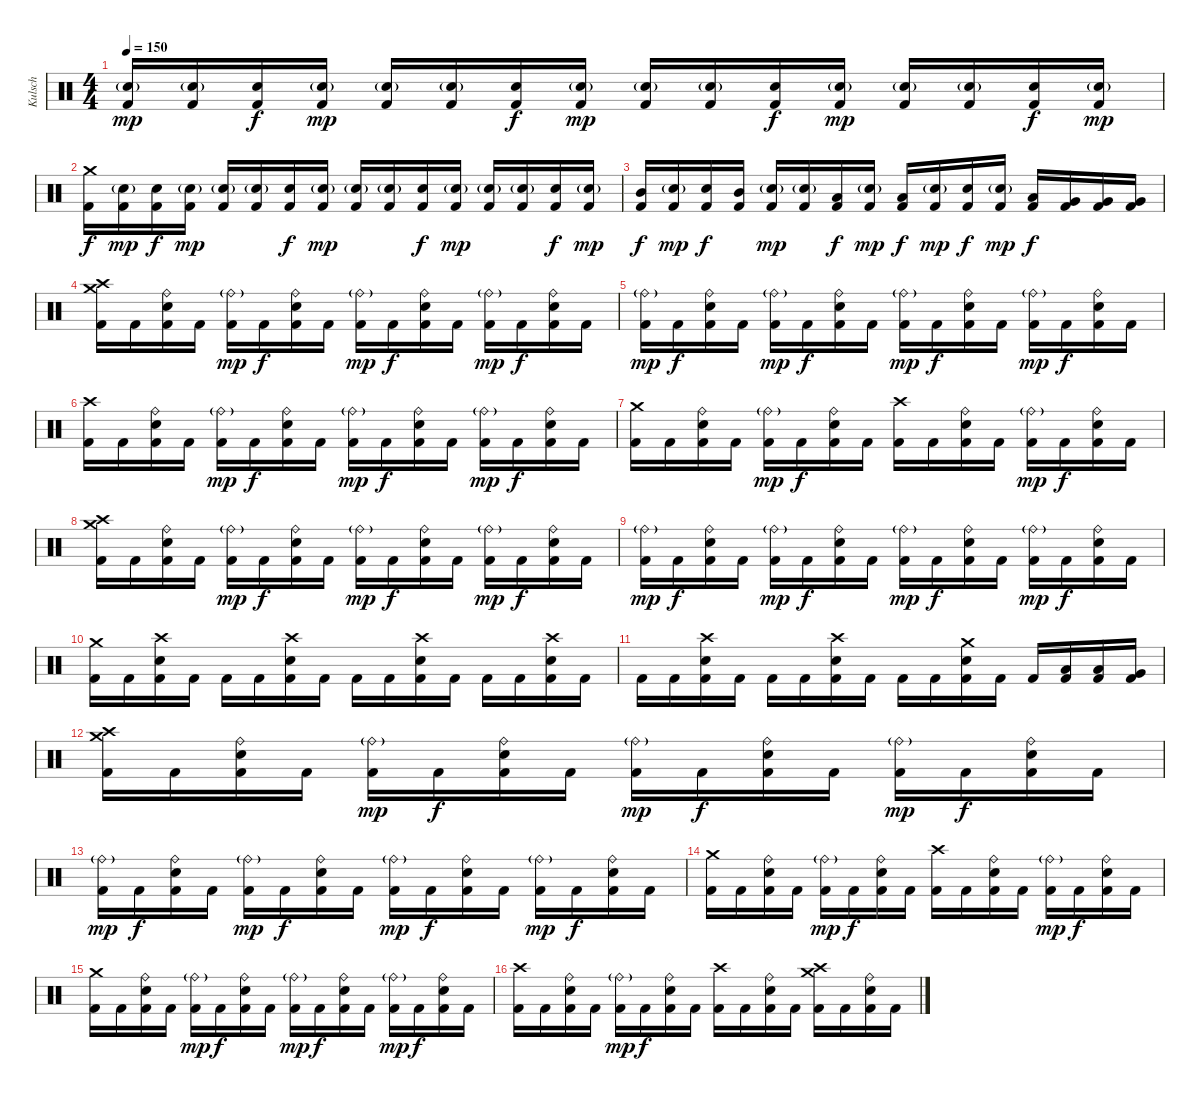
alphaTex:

\track ("Kulsch" "Kulsch") {instrument percussion}
\staff {score}
\articulation defaults
\ts (4 4)
\tempo 150
\clef neutral
\ks c
("Snare (hit) 2"{g} "Kick (hit) 2").16{dy mp} ("Snare (hit) 2"{g} "Kick (hit) 2").16 ("Snare (hit) 2" "Kick (hit) 2").16{dy f} ("Snare (hit) 2"{g} "Kick (hit) 2").16{dy mp} ("Snare (hit) 2"{g} "Kick (hit) 2").16 ("Snare (hit) 2"{g} "Kick (hit) 2").16 ("Snare (hit) 2" "Kick (hit) 2").16{dy f} ("Snare (hit) 2"{g} "Kick (hit) 2").16{dy mp} ("Snare (hit) 2"{g} "Kick (hit) 2").16 ("Snare (hit) 2"{g} "Kick (hit) 2").16 ("Snare (hit) 2" "Kick (hit) 2").16{dy f} ("Snare (hit) 2"{g} "Kick (hit) 2").16{dy mp} ("Snare (hit) 2"{g} "Kick (hit) 2").16 ("Snare (hit) 2"{g} "Kick (hit) 2").16 ("Snare (hit) 2" "Kick (hit) 2").16{dy f} ("Snare (hit) 2"{g} "Kick (hit) 2").16{dy mp} |
("Crash medium (hit)" "Kick (hit) 2").16{dy f} ("Snare (hit) 2"{g} "Kick (hit) 2").16{dy mp} ("Snare (hit) 2" "Kick (hit) 2").16{dy f} ("Snare (hit) 2"{g} "Kick (hit) 2").16{dy mp} ("Snare (hit) 2"{g} "Kick (hit) 2").16 ("Snare (hit) 2"{g} "Kick (hit) 2").16 ("Snare (hit) 2" "Kick (hit) 2").16{dy f} ("Snare (hit) 2"{g} "Kick (hit) 2").16{dy mp} ("Snare (hit) 2"{g} "Kick (hit) 2").16 ("Snare (hit) 2"{g} "Kick (hit) 2").16 ("Snare (hit) 2" "Kick (hit) 2").16{dy f} ("Snare (hit) 2"{g} "Kick (hit) 2").16{dy mp} ("Snare (hit) 2"{g} "Kick (hit) 2").16 ("Snare (hit) 2"{g} "Kick (hit) 2").16 ("Snare (hit) 2" "Kick (hit) 2").16{dy f} ("Snare (hit) 2"{g} "Kick (hit) 2").16{dy mp} |
("Mid Tom (hit)" "Kick (hit) 2").16{dy f} ("Snare (hit) 2"{g} "Kick (hit) 2").16{dy mp} ("Snare (hit) 2" "Kick (hit) 2").16{dy f} ("Mid Tom (hit)" "Kick (hit) 2").16 ("Snare (hit) 2"{g} "Kick (hit) 2").16{dy mp} ("Snare (hit) 2"{g} "Kick (hit) 2").16 ("Low Tom (hit)" "Kick (hit) 2").16{dy f} ("Snare (hit) 2"{g} "Kick (hit) 2").16{dy mp} ("Low Tom (hit)" "Kick (hit) 2").16{dy f} ("Snare (hit) 2"{g} "Kick (hit) 2").16{dy mp} ("Snare (hit) 2" "Kick (hit) 2").16{dy f} ("Snare (hit) 2"{g} "Kick (hit) 2").16{dy mp} ("Low Tom (hit)" "Kick (hit) 2").16{dy f} ("Very Low Tom (hit)" "Kick (hit) 2").16 ("Very Low Tom (hit)" "Kick (hit) 2").16 ("Very Low Tom (hit)" "Kick (hit) 2").16 |
("Crash medium (hit)" "Crash high (hit)" "Kick (hit) 2").16 "Kick (hit) 2".16 ("Ride (bell)" "Snare (hit) 2" "Kick (hit) 2").16 "Kick (hit) 2".16 ("Ride (bell)"{g} "Kick (hit) 2").16{dy mp} "Kick (hit) 2".16{dy f} ("Ride (bell)" "Snare (hit) 2" "Kick (hit) 2").16 "Kick (hit) 2".16 ("Ride (bell)"{g} "Kick (hit) 2").16{dy mp} "Kick (hit) 2".16{dy f} ("Ride (bell)" "Snare (hit) 2" "Kick (hit) 2").16 "Kick (hit) 2".16 ("Ride (bell)"{g} "Kick (hit) 2").16{dy mp} "Kick (hit) 2".16{dy f} ("Ride (bell)" "Snare (hit) 2" "Kick (hit) 2").16 "Kick (hit) 2".16 |
("Ride (bell)"{g} "Kick (hit) 2").16{dy mp} "Kick (hit) 2".16{dy f} ("Ride (bell)" "Snare (hit) 2" "Kick (hit) 2").16 "Kick (hit) 2".16 ("Ride (bell)"{g} "Kick (hit) 2").16{dy mp} "Kick (hit) 2".16{dy f} ("Ride (bell)" "Snare (hit) 2" "Kick (hit) 2").16 "Kick (hit) 2".16 ("Ride (bell)"{g} "Kick (hit) 2").16{dy mp} "Kick (hit) 2".16{dy f} ("Ride (bell)" "Snare (hit) 2" "Kick (hit) 2").16 "Kick (hit) 2".16 ("Ride (bell)"{g} "Kick (hit) 2").16{dy mp} "Kick (hit) 2".16{dy f} ("Ride (bell)" "Snare (hit) 2" "Kick (hit) 2").16 "Kick (hit) 2".16 |
("Crash high (hit)" "Kick (hit) 2").16 "Kick (hit) 2".16 ("Ride (bell)" "Snare (hit) 2" "Kick (hit) 2").16 "Kick (hit) 2".16 ("Ride (bell)"{g} "Kick (hit) 2").16{dy mp} "Kick (hit) 2".16{dy f} ("Ride (bell)" "Snare (hit) 2" "Kick (hit) 2").16 "Kick (hit) 2".16 ("Ride (bell)"{g} "Kick (hit) 2").16{dy mp} "Kick (hit) 2".16{dy f} ("Ride (bell)" "Snare (hit) 2" "Kick (hit) 2").16 "Kick (hit) 2".16 ("Ride (bell)"{g} "Kick (hit) 2").16{dy mp} "Kick (hit) 2".16{dy f} ("Ride (bell)" "Snare (hit) 2" "Kick (hit) 2").16 "Kick (hit) 2".16 |
("Crash medium (hit)" "Kick (hit) 2").16 "Kick (hit) 2".16 ("Ride (bell)" "Snare (hit) 2" "Kick (hit) 2").16 "Kick (hit) 2".16 ("Ride (bell)"{g} "Kick (hit) 2").16{dy mp} "Kick (hit) 2".16{dy f} ("Ride (bell)" "Snare (hit) 2" "Kick (hit) 2").16 "Kick (hit) 2".16 ("Crash high (hit)" "Kick (hit) 2").16 "Kick (hit) 2".16 ("Ride (bell)" "Snare (hit) 2" "Kick (hit) 2").16 "Kick (hit) 2".16 ("Ride (bell)"{g} "Kick (hit) 2").16{dy mp} "Kick (hit) 2".16{dy f} ("Ride (bell)" "Snare (hit) 2" "Kick (hit) 2").16 "Kick (hit) 2".16 |
("Crash medium (hit)" "Crash high (hit)" "Kick (hit) 2").16 "Kick (hit) 2".16 ("Ride (bell)" "Snare (hit) 2" "Kick (hit) 2").16 "Kick (hit) 2".16 ("Ride (bell)"{g} "Kick (hit) 2").16{dy mp} "Kick (hit) 2".16{dy f} ("Ride (bell)" "Snare (hit) 2" "Kick (hit) 2").16 "Kick (hit) 2".16 ("Ride (bell)"{g} "Kick (hit) 2").16{dy mp} "Kick (hit) 2".16{dy f} ("Ride (bell)" "Snare (hit) 2" "Kick (hit) 2").16 "Kick (hit) 2".16 ("Ride (bell)"{g} "Kick (hit) 2").16{dy mp} "Kick (hit) 2".16{dy f} ("Ride (bell)" "Snare (hit) 2" "Kick (hit) 2").16 "Kick (hit) 2".16 |
("Ride (bell)"{g} "Kick (hit) 2").16{dy mp} "Kick (hit) 2".16{dy f} ("Ride (bell)" "Snare (hit) 2" "Kick (hit) 2").16 "Kick (hit) 2".16 ("Ride (bell)"{g} "Kick (hit) 2").16{dy mp} "Kick (hit) 2".16{dy f} ("Ride (bell)" "Snare (hit) 2" "Kick (hit) 2").16 "Kick (hit) 2".16 ("Ride (bell)"{g} "Kick (hit) 2").16{dy mp} "Kick (hit) 2".16{dy f} ("Ride (bell)" "Snare (hit) 2" "Kick (hit) 2").16 "Kick (hit) 2".16 ("Ride (bell)"{g} "Kick (hit) 2").16{dy mp} "Kick (hit) 2".16{dy f} ("Ride (bell)" "Snare (hit) 2" "Kick (hit) 2").16 "Kick (hit) 2".16 |
("Crash medium (hit)" "Kick (hit) 2").16 "Kick (hit) 2".16 ("Crash high (hit)" "Snare (hit) 2" "Kick (hit) 2").16 "Kick (hit) 2".16 "Kick (hit) 2".16 "Kick (hit) 2".16 ("Crash high (hit)" "Snare (hit) 2" "Kick (hit) 2").16 "Kick (hit) 2".16 "Kick (hit) 2".16 "Kick (hit) 2".16 ("Crash high (hit)" "Snare (hit) 2" "Kick (hit) 2").16 "Kick (hit) 2".16 "Kick (hit) 2".16 "Kick (hit) 2".16 ("Crash high (hit)" "Snare (hit) 2" "Kick (hit) 2").16 "Kick (hit) 2".16 |
"Kick (hit) 2".16 "Kick (hit) 2".16 ("Crash high (hit)" "Snare (hit) 2" "Kick (hit) 2").16 "Kick (hit) 2".16 "Kick (hit) 2".16 "Kick (hit) 2".16 ("Crash high (hit)" "Snare (hit) 2" "Kick (hit) 2").16 "Kick (hit) 2".16 "Kick (hit) 2".16 "Kick (hit) 2".16 ("Crash medium (hit)" "Snare (hit) 2" "Kick (hit) 2").16 "Kick (hit) 2".16 "Kick (hit) 2".16 ("Low Tom (hit)" "Kick (hit) 2").16 ("Low Tom (hit)" "Kick (hit) 2").16 ("Very Low Tom (hit)" "Kick (hit) 2").16 |
("Crash medium (hit)" "Crash high (hit)" "Kick (hit) 2").16 "Kick (hit) 2".16 ("Ride (bell)" "Snare (hit) 2" "Kick (hit) 2").16 "Kick (hit) 2".16 ("Ride (bell)"{g} "Kick (hit) 2").16{dy mp} "Kick (hit) 2".16{dy f} ("Ride (bell)" "Snare (hit) 2" "Kick (hit) 2").16 "Kick (hit) 2".16 ("Ride (bell)"{g} "Kick (hit) 2").16{dy mp} "Kick (hit) 2".16{dy f} ("Ride (bell)" "Snare (hit) 2" "Kick (hit) 2").16 "Kick (hit) 2".16 ("Ride (bell)"{g} "Kick (hit) 2").16{dy mp} "Kick (hit) 2".16{dy f} ("Ride (bell)" "Snare (hit) 2" "Kick (hit) 2").16 "Kick (hit) 2".16 |
("Ride (bell)"{g} "Kick (hit) 2").16{dy mp} "Kick (hit) 2".16{dy f} ("Ride (bell)" "Snare (hit) 2" "Kick (hit) 2").16 "Kick (hit) 2".16 ("Ride (bell)"{g} "Kick (hit) 2").16{dy mp} "Kick (hit) 2".16{dy f} ("Ride (bell)" "Snare (hit) 2" "Kick (hit) 2").16 "Kick (hit) 2".16 ("Ride (bell)"{g} "Kick (hit) 2").16{dy mp} "Kick (hit) 2".16{dy f} ("Ride (bell)" "Snare (hit) 2" "Kick (hit) 2").16 "Kick (hit) 2".16 ("Ride (bell)"{g} "Kick (hit) 2").16{dy mp} "Kick (hit) 2".16{dy f} ("Ride (bell)" "Snare (hit) 2" "Kick (hit) 2").16 "Kick (hit) 2".16 |
("Crash medium (hit)" "Kick (hit) 2").16 "Kick (hit) 2".16 ("Ride (bell)" "Snare (hit) 2" "Kick (hit) 2").16 "Kick (hit) 2".16 ("Ride (bell)"{g} "Kick (hit) 2").16{dy mp} "Kick (hit) 2".16{dy f} ("Ride (bell)" "Snare (hit) 2" "Kick (hit) 2").16 "Kick (hit) 2".16 ("Crash high (hit)" "Kick (hit) 2").16 "Kick (hit) 2".16 ("Ride (bell)" "Snare (hit) 2" "Kick (hit) 2").16 "Kick (hit) 2".16 ("Ride (bell)"{g} "Kick (hit) 2").16{dy mp} "Kick (hit) 2".16{dy f} ("Ride (bell)" "Snare (hit) 2" "Kick (hit) 2").16 "Kick (hit) 2".16 |
("Crash medium (hit)" "Kick (hit) 2").16 "Kick (hit) 2".16 ("Ride (bell)" "Snare (hit) 2" "Kick (hit) 2").16 "Kick (hit) 2".16 ("Ride (bell)"{g} "Kick (hit) 2").16{dy mp} "Kick (hit) 2".16{dy f} ("Ride (bell)" "Snare (hit) 2" "Kick (hit) 2").16 "Kick (hit) 2".16 ("Ride (bell)"{g} "Kick (hit) 2").16{dy mp} "Kick (hit) 2".16{dy f} ("Ride (bell)" "Snare (hit) 2" "Kick (hit) 2").16 "Kick (hit) 2".16 ("Ride (bell)"{g} "Kick (hit) 2").16{dy mp} "Kick (hit) 2".16{dy f} ("Ride (bell)" "Snare (hit) 2" "Kick (hit) 2").16 "Kick (hit) 2".16 |
("Crash high (hit)" "Kick (hit) 2").16 "Kick (hit) 2".16 ("Ride (bell)" "Snare (hit) 2" "Kick (hit) 2").16 "Kick (hit) 2".16 ("Ride (bell)"{g} "Kick (hit) 2").16{dy mp} "Kick (hit) 2".16{dy f} ("Ride (bell)" "Snare (hit) 2" "Kick (hit) 2").16 "Kick (hit) 2".16 ("Crash high (hit)" "Kick (hit) 2").16 "Kick (hit) 2".16 ("Ride (bell)" "Snare (hit) 2" "Kick (hit) 2").16 "Kick (hit) 2".16 ("Crash medium (hit)" "Crash high (hit)" "Kick (hit) 2").16 "Kick (hit) 2".16 ("Ride (bell)" "Snare (hit) 2" "Kick (hit) 2").16 "Kick (hit) 2".16
